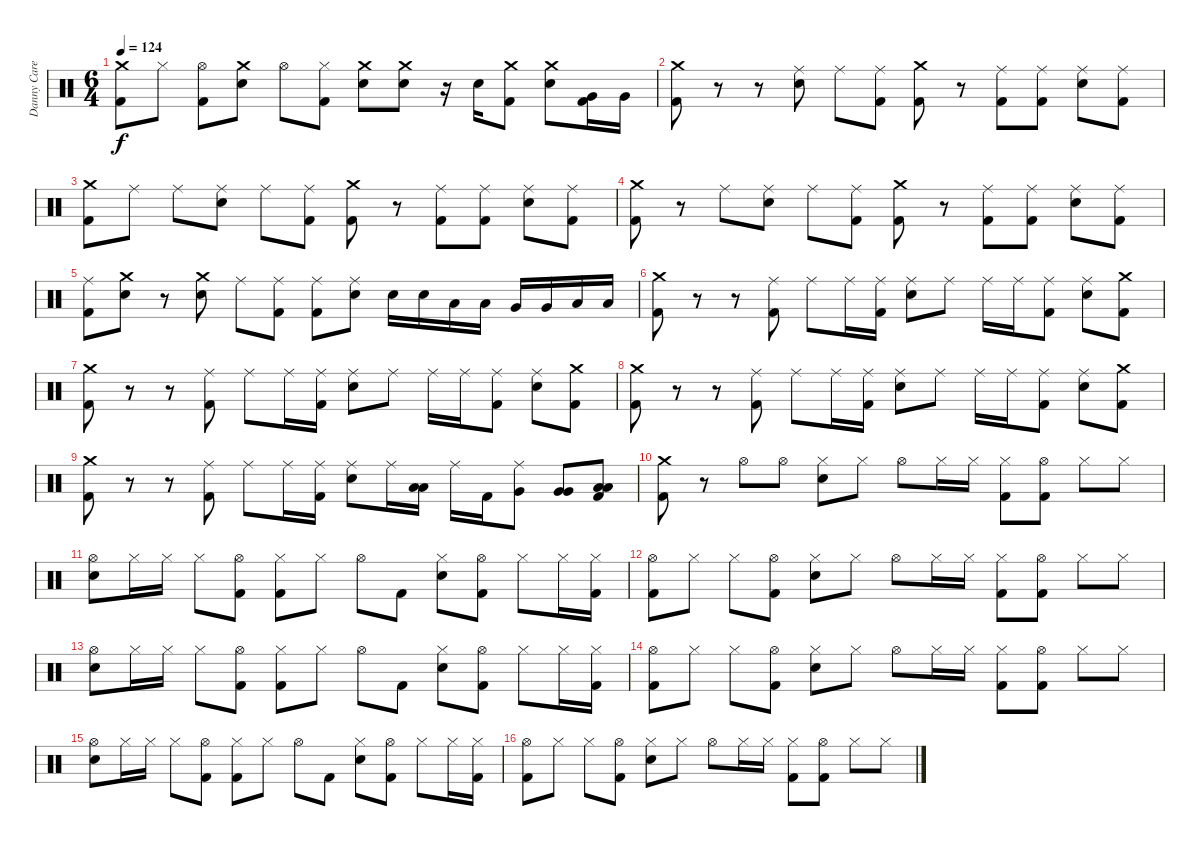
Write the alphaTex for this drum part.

\track ("Danny Carey" "Danny Care") {instrument percussion}
\staff {score}
\articulation defaults
\ts (6 4)
\tempo 124
\clef neutral
\ks c
("Crash medium (hit)" "Kick (hit) 2").8{dy f} "Hi-Hat (closed)".8 ("Hi-Hat (open)" "Kick (hit) 2").8 ("Crash medium (hit)" "Electric Snare (hit)").8 "Hi-Hat (open)".8 ("Hi-Hat (closed)" "Kick (hit) 2").8 ("Crash medium (hit)" "Electric Snare (hit)").8 ("Crash medium (hit)" "Electric Snare (hit)").8 r.16 "Electric Snare (hit)".16 ("Crash medium (hit)" "Kick (hit) 2").8 ("Crash medium (hit)" "Electric Snare (hit)").8 ("Very Low Tom (hit)" "Kick (hit) 2").16 "Very Low Tom (hit)".16 |
("Crash medium (hit)" "Kick (hit) 2").8 r.8 r.8 ("Ride (middle)" "Electric Snare (hit)").8 "Ride (middle)".8 ("Ride (middle)" "Kick (hit) 2").8 ("Crash medium (hit)" "Kick (hit) 2").8 r.8 ("Ride (middle)" "Kick (hit) 2").8 ("Ride (middle)" "Kick (hit) 2").8 ("Ride (middle)" "Electric Snare (hit)").8 ("Ride (middle)" "Kick (hit) 2").8 |
("Crash medium (hit)" "Kick (hit) 2").8 "Ride (middle)".8 "Ride (middle)".8 ("Ride (middle)" "Electric Snare (hit)").8 "Ride (middle)".8 ("Ride (middle)" "Kick (hit) 2").8 ("Crash medium (hit)" "Kick (hit) 2").8 r.8 ("Ride (middle)" "Kick (hit) 2").8 ("Ride (middle)" "Kick (hit) 2").8 ("Ride (middle)" "Electric Snare (hit)").8 ("Ride (middle)" "Kick (hit) 2").8 |
("Crash medium (hit)" "Kick (hit) 2").8 r.8 "Ride (middle)".8 ("Ride (middle)" "Electric Snare (hit)").8 "Ride (middle)".8 ("Ride (middle)" "Kick (hit) 2").8 ("Crash medium (hit)" "Kick (hit) 2").8 r.8 ("Ride (middle)" "Kick (hit) 2").8 ("Ride (middle)" "Kick (hit) 2").8 ("Ride (middle)" "Electric Snare (hit)").8 ("Ride (middle)" "Kick (hit) 2").8 |
("Ride (middle)" "Kick (hit) 2").8 ("Crash medium (hit)" "Electric Snare (hit)").8 r.8 ("Crash medium (hit)" "Electric Snare (hit)").8 "Ride (middle)".8 ("Ride (middle)" "Kick (hit) 2").8 ("Ride (middle)" "Kick (hit) 2").8 ("Ride (middle)" "Electric Snare (hit)").8 "Electric Snare (hit)".16 "Electric Snare (hit)".16 "Low Tom (hit)".16 "Low Tom (hit)".16 "Very Low Tom (hit)".16 "Very Low Tom (hit)".16 "Low Floor Tom (hit)".16 "Low Floor Tom (hit)".16 |
("Crash medium (hit)" "Kick (hit) 2").8 r.8 r.8 ("Ride (middle)" "Kick (hit) 2").8 "Ride (middle)".8 "Ride (middle)".16 ("Ride (middle)" "Kick (hit) 2").16 ("Ride (middle)" "Electric Snare (hit)").8 "Ride (middle)".8 "Ride (middle)".16 "Ride (middle)".16 ("Ride (middle)" "Kick (hit) 2").8 ("Ride (middle)" "Electric Snare (hit)").8 ("Crash medium (hit)" "Kick (hit) 2").8 |
("Crash medium (hit)" "Kick (hit) 2").8 r.8 r.8 ("Ride (middle)" "Kick (hit) 2").8 "Ride (middle)".8 "Ride (middle)".16 ("Ride (middle)" "Kick (hit) 2").16 ("Ride (middle)" "Electric Snare (hit)").8 "Ride (middle)".8 "Ride (middle)".16 "Ride (middle)".16 ("Ride (middle)" "Kick (hit) 2").8 ("Ride (middle)" "Electric Snare (hit)").8 ("Crash medium (hit)" "Kick (hit) 2").8 |
("Crash medium (hit)" "Kick (hit) 2").8 r.8 r.8 ("Ride (middle)" "Kick (hit) 2").8 "Ride (middle)".8 "Ride (middle)".16 ("Ride (middle)" "Kick (hit) 2").16 ("Ride (middle)" "Electric Snare (hit)").8 "Ride (middle)".8 "Ride (middle)".16 "Ride (middle)".16 ("Ride (middle)" "Kick (hit) 2").8 ("Ride (middle)" "Electric Snare (hit)").8 ("Crash medium (hit)" "Kick (hit) 2").8 |
("Crash medium (hit)" "Kick (hit) 2").8 r.8 r.8 ("Ride (middle)" "Kick (hit) 2").8 "Ride (middle)".8 "Ride (middle)".16 ("Ride (middle)" "Kick (hit) 2").16 ("Ride (middle)" "Electric Snare (hit)").8 "Ride (middle)".16 ("Low Tom (hit)" "Low Tom (hit)").16 "Ride (middle)".16 "Kick (hit) 2".16 ("Ride (middle)" "Very Low Tom (hit)").8 ("Very Low Tom (hit)" "Very Low Tom (hit)").8 ("Low Floor Tom (hit)" "Low Floor Tom (hit)" "Kick (hit) 2").8 |
("Crash medium (hit)" "Kick (hit) 2").8 r.8 "Hi-Hat (open)".8 "Hi-Hat (open)".8 ("Hi-Hat (closed)" "Electric Snare (hit)").8 "Hi-Hat (closed)".8 "Hi-Hat (open)".8 "Hi-Hat (closed)".16 "Hi-Hat (closed)".16 ("Hi-Hat (closed)" "Kick (hit) 2").8 ("Hi-Hat (open)" "Kick (hit) 2").8 "Hi-Hat (closed)".8 "Hi-Hat (closed)".8 |
("Hi-Hat (open)" "Electric Snare (hit)").8 "Hi-Hat (closed)".16 "Hi-Hat (closed)".16 "Hi-Hat (closed)".8 ("Hi-Hat (open)" "Kick (hit) 2").8 ("Hi-Hat (closed)" "Kick (hit) 2").8 "Hi-Hat (closed)".8 "Hi-Hat (open)".8 "Kick (hit) 2".8 ("Hi-Hat (closed)" "Electric Snare (hit)").8 ("Hi-Hat (open)" "Kick (hit) 2").8 "Hi-Hat (closed)".8 "Hi-Hat (closed)".16 ("Hi-Hat (closed)" "Kick (hit) 2").16 |
("Hi-Hat (open)" "Kick (hit) 2").8 "Hi-Hat (closed)".8 "Hi-Hat (closed)".8 ("Hi-Hat (open)" "Kick (hit) 2").8 ("Hi-Hat (closed)" "Electric Snare (hit)").8 "Hi-Hat (closed)".8 "Hi-Hat (open)".8 "Hi-Hat (closed)".16 "Hi-Hat (closed)".16 ("Hi-Hat (closed)" "Kick (hit) 2").8 ("Hi-Hat (open)" "Kick (hit) 2").8 "Hi-Hat (closed)".8 "Hi-Hat (closed)".8 |
("Hi-Hat (open)" "Electric Snare (hit)").8 "Hi-Hat (closed)".16 "Hi-Hat (closed)".16 "Hi-Hat (closed)".8 ("Hi-Hat (open)" "Kick (hit) 2").8 ("Hi-Hat (closed)" "Kick (hit) 2").8 "Hi-Hat (closed)".8 "Hi-Hat (open)".8 "Kick (hit) 2".8 ("Hi-Hat (closed)" "Electric Snare (hit)").8 ("Hi-Hat (open)" "Kick (hit) 2").8 "Hi-Hat (closed)".8 "Hi-Hat (closed)".16 ("Hi-Hat (closed)" "Kick (hit) 2").16 |
("Hi-Hat (open)" "Kick (hit) 2").8 "Hi-Hat (closed)".8 "Hi-Hat (closed)".8 ("Hi-Hat (open)" "Kick (hit) 2").8 ("Hi-Hat (closed)" "Electric Snare (hit)").8 "Hi-Hat (closed)".8 "Hi-Hat (open)".8 "Hi-Hat (closed)".16 "Hi-Hat (closed)".16 ("Hi-Hat (closed)" "Kick (hit) 2").8 ("Hi-Hat (open)" "Kick (hit) 2").8 "Hi-Hat (closed)".8 "Hi-Hat (closed)".8 |
("Hi-Hat (open)" "Electric Snare (hit)").8 "Hi-Hat (closed)".16 "Hi-Hat (closed)".16 "Hi-Hat (closed)".8 ("Hi-Hat (open)" "Kick (hit) 2").8 ("Hi-Hat (closed)" "Kick (hit) 2").8 "Hi-Hat (closed)".8 "Hi-Hat (open)".8 "Kick (hit) 2".8 ("Hi-Hat (closed)" "Electric Snare (hit)").8 ("Hi-Hat (open)" "Kick (hit) 2").8 "Hi-Hat (closed)".8 "Hi-Hat (closed)".16 ("Hi-Hat (closed)" "Kick (hit) 2").16 |
("Hi-Hat (open)" "Kick (hit) 2").8 "Hi-Hat (closed)".8 "Hi-Hat (closed)".8 ("Hi-Hat (open)" "Kick (hit) 2").8 ("Hi-Hat (closed)" "Electric Snare (hit)").8 "Hi-Hat (closed)".8 "Hi-Hat (open)".8 "Hi-Hat (closed)".16 "Hi-Hat (closed)".16 ("Hi-Hat (closed)" "Kick (hit) 2").8 ("Hi-Hat (open)" "Kick (hit) 2").8 "Hi-Hat (closed)".8 "Hi-Hat (closed)".8
